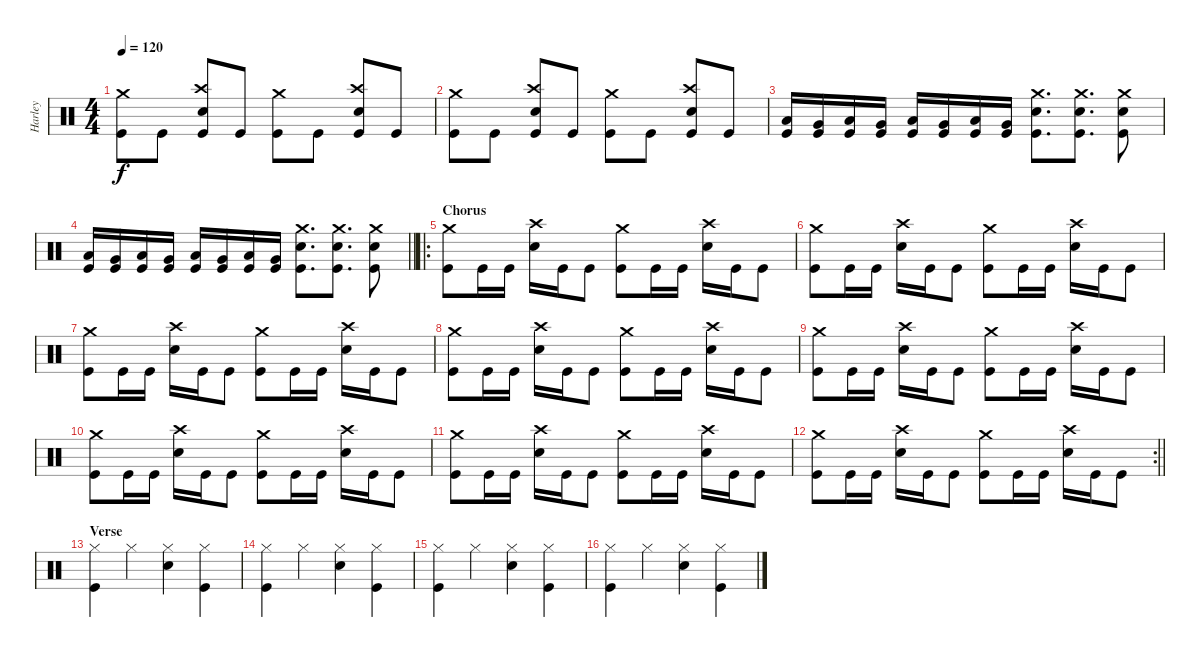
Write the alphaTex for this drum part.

\track ("Harley" "Harley") {instrument percussion}
\staff {score}
\articulation defaults
\ts (4 4)
\tempo 120
\clef neutral
\ks c
("Crash medium (hit)" "Kick (hit)").8{dy f} "Kick (hit)".8 ("Crash high (hit)" "Snare (hit) 2" "Kick (hit)").8 "Kick (hit)".8 ("Crash medium (hit)" "Kick (hit)").8 "Kick (hit)".8 ("Crash high (hit)" "Snare (hit) 2" "Kick (hit)").8 "Kick (hit)".8 |
("Crash medium (hit)" "Kick (hit)").8 "Kick (hit)".8 ("Crash high (hit)" "Snare (hit) 2" "Kick (hit)").8 "Kick (hit)".8 ("Crash medium (hit)" "Kick (hit)").8 "Kick (hit)".8 ("Crash high (hit)" "Snare (hit) 2" "Kick (hit)").8 "Kick (hit)".8 |
("Low Floor Tom (hit)" "Kick (hit)").16 ("Very Low Tom (hit)" "Kick (hit)").16 ("Low Floor Tom (hit)" "Kick (hit)").16 ("Very Low Tom (hit)" "Kick (hit)").16 ("Low Floor Tom (hit)" "Kick (hit)").16 ("Very Low Tom (hit)" "Kick (hit)").16 ("Low Floor Tom (hit)" "Kick (hit)").16 ("Very Low Tom (hit)" "Kick (hit)").16 ("Crash medium (hit)" "Snare (hit) 2" "Kick (hit)").8{d} ("Crash medium (hit)" "Snare (hit) 2" "Kick (hit)").8{d} ("Crash medium (hit)" "Snare (hit) 2" "Kick (hit)").8 |
\barLineRight lightlight
("Low Floor Tom (hit)" "Kick (hit)").16 ("Very Low Tom (hit)" "Kick (hit)").16 ("Low Floor Tom (hit)" "Kick (hit)").16 ("Very Low Tom (hit)" "Kick (hit)").16 ("Low Floor Tom (hit)" "Kick (hit)").16 ("Very Low Tom (hit)" "Kick (hit)").16 ("Low Floor Tom (hit)" "Kick (hit)").16 ("Very Low Tom (hit)" "Kick (hit)").16 ("Crash medium (hit)" "Snare (hit) 2" "Kick (hit)").8{d} ("Crash medium (hit)" "Snare (hit) 2" "Kick (hit)").8{d} ("Crash medium (hit)" "Snare (hit) 2" "Kick (hit)").8 |
\ro
\section ("" "Chorus")
("Crash medium (hit)" "Kick (hit)").8 "Kick (hit)".16 "Kick (hit)".16 ("Crash high (hit)" "Snare (hit) 2").16 "Kick (hit)".16 "Kick (hit)".8 ("Crash medium (hit)" "Kick (hit)").8 "Kick (hit)".16 "Kick (hit)".16 ("Crash high (hit)" "Snare (hit) 2").16 "Kick (hit)".16 "Kick (hit)".8 |
("Crash medium (hit)" "Kick (hit)").8 "Kick (hit)".16 "Kick (hit)".16 ("Crash high (hit)" "Snare (hit) 2").16 "Kick (hit)".16 "Kick (hit)".8 ("Crash medium (hit)" "Kick (hit)").8 "Kick (hit)".16 "Kick (hit)".16 ("Crash high (hit)" "Snare (hit) 2").16 "Kick (hit)".16 "Kick (hit)".8 |
("Crash medium (hit)" "Kick (hit)").8 "Kick (hit)".16 "Kick (hit)".16 ("Crash high (hit)" "Snare (hit) 2").16 "Kick (hit)".16 "Kick (hit)".8 ("Crash medium (hit)" "Kick (hit)").8 "Kick (hit)".16 "Kick (hit)".16 ("Crash high (hit)" "Snare (hit) 2").16 "Kick (hit)".16 "Kick (hit)".8 |
("Crash medium (hit)" "Kick (hit)").8 "Kick (hit)".16 "Kick (hit)".16 ("Crash high (hit)" "Snare (hit) 2").16 "Kick (hit)".16 "Kick (hit)".8 ("Crash medium (hit)" "Kick (hit)").8 "Kick (hit)".16 "Kick (hit)".16 ("Crash high (hit)" "Snare (hit) 2").16 "Kick (hit)".16 "Kick (hit)".8 |
("Crash medium (hit)" "Kick (hit)").8 "Kick (hit)".16 "Kick (hit)".16 ("Crash high (hit)" "Snare (hit) 2").16 "Kick (hit)".16 "Kick (hit)".8 ("Crash medium (hit)" "Kick (hit)").8 "Kick (hit)".16 "Kick (hit)".16 ("Crash high (hit)" "Snare (hit) 2").16 "Kick (hit)".16 "Kick (hit)".8 |
("Crash medium (hit)" "Kick (hit)").8 "Kick (hit)".16 "Kick (hit)".16 ("Crash high (hit)" "Snare (hit) 2").16 "Kick (hit)".16 "Kick (hit)".8 ("Crash medium (hit)" "Kick (hit)").8 "Kick (hit)".16 "Kick (hit)".16 ("Crash high (hit)" "Snare (hit) 2").16 "Kick (hit)".16 "Kick (hit)".8 |
("Crash medium (hit)" "Kick (hit)").8 "Kick (hit)".16 "Kick (hit)".16 ("Crash high (hit)" "Snare (hit) 2").16 "Kick (hit)".16 "Kick (hit)".8 ("Crash medium (hit)" "Kick (hit)").8 "Kick (hit)".16 "Kick (hit)".16 ("Crash high (hit)" "Snare (hit) 2").16 "Kick (hit)".16 "Kick (hit)".8 |
\rc 2
\barLineRight lightlight
("Crash medium (hit)" "Kick (hit)").8 "Kick (hit)".16 "Kick (hit)".16 ("Crash high (hit)" "Snare (hit) 2").16 "Kick (hit)".16 "Kick (hit)".8 ("Crash medium (hit)" "Kick (hit)").8 "Kick (hit)".16 "Kick (hit)".16 ("Crash high (hit)" "Snare (hit) 2").16 "Kick (hit)".16 "Kick (hit)".8 |
\section ("" "Verse")
("Hi-Hat (closed)" "Kick (hit)").4 "Hi-Hat (closed)".4 ("Hi-Hat (closed)" "Snare (hit) 2").4 ("Hi-Hat (closed)" "Kick (hit)").4 |
("Hi-Hat (closed)" "Kick (hit)").4 "Hi-Hat (closed)".4 ("Hi-Hat (closed)" "Snare (hit) 2").4 ("Hi-Hat (closed)" "Kick (hit)").4 |
("Hi-Hat (closed)" "Kick (hit)").4 "Hi-Hat (closed)".4 ("Hi-Hat (closed)" "Snare (hit) 2").4 ("Hi-Hat (closed)" "Kick (hit)").4 |
("Hi-Hat (closed)" "Kick (hit)").4 "Hi-Hat (closed)".4 ("Hi-Hat (closed)" "Snare (hit) 2").4 ("Hi-Hat (closed)" "Kick (hit)").4
